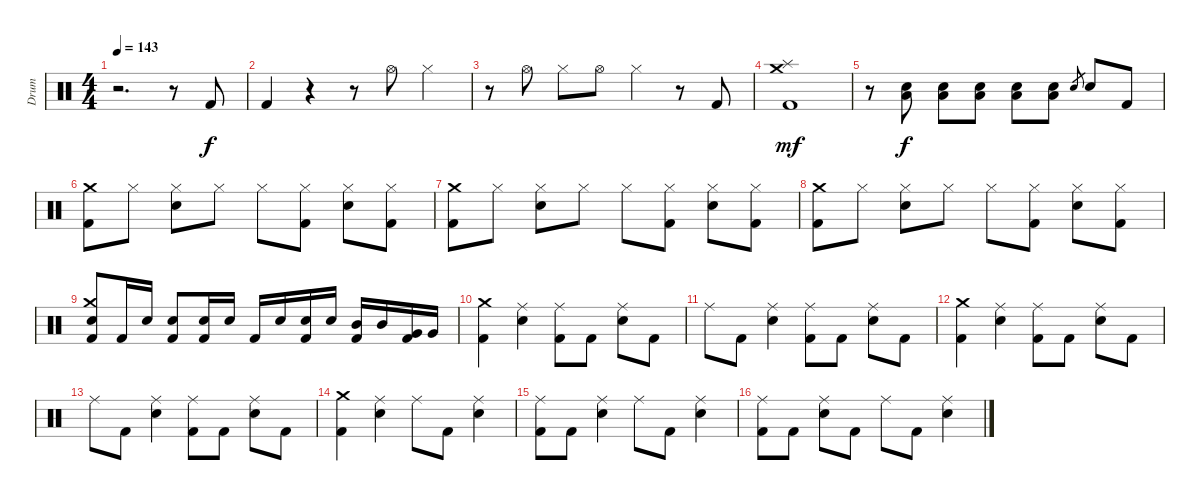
\track ("Drum" "Drum") {instrument percussion}
\staff {score}
\articulation defaults
\ts (4 4)
\tempo 143
\clef neutral
\ks c
r.2{d dy f} r.8 "Kick (hit) 2".8 |
"Kick (hit) 2".4 r.4 r.8 "Hi-Hat (open)".8 "Hi-Hat (closed)".4 |
r.8 "Hi-Hat (open)".8 "Hi-Hat (closed)".8 "Hi-Hat (open)".8 "Hi-Hat (closed)".4 r.8 "Kick (hit) 2".8 |
("Splash (hit)" "Crash medium (hit)" "Kick (hit) 2").1{dy mf} |
r.8 ("Snare (hit) 2" "Low Floor Tom (hit)").8{dy f} ("Snare (hit) 2" "Low Floor Tom (hit)").8 ("Snare (hit) 2" "Low Floor Tom (hit)").8 ("Snare (hit) 2" "Low Floor Tom (hit)").8 ("Snare (hit) 2" "Low Floor Tom (hit)").8 "Snare (hit) 2".8{gr} "Snare (hit) 2".8 "Kick (hit) 2".8 |
("Crash medium (hit)" "Kick (hit) 2").8 "Hi-Hat (closed)".8 ("Hi-Hat (closed)" "Snare (hit) 2").8 "Hi-Hat (closed)".8 "Hi-Hat (closed)".8 ("Hi-Hat (closed)" "Kick (hit) 2").8 ("Hi-Hat (closed)" "Snare (hit) 2").8 ("Hi-Hat (closed)" "Kick (hit) 2").8 |
("Crash medium (hit)" "Kick (hit) 2").8 "Hi-Hat (closed)".8 ("Hi-Hat (closed)" "Snare (hit) 2").8 "Hi-Hat (closed)".8 "Hi-Hat (closed)".8 ("Hi-Hat (closed)" "Kick (hit) 2").8 ("Hi-Hat (closed)" "Snare (hit) 2").8 ("Hi-Hat (closed)" "Kick (hit) 2").8 |
("Crash medium (hit)" "Kick (hit) 2").8 "Hi-Hat (closed)".8 ("Hi-Hat (closed)" "Snare (hit) 2").8 "Hi-Hat (closed)".8 "Hi-Hat (closed)".8 ("Hi-Hat (closed)" "Kick (hit) 2").8 ("Hi-Hat (closed)" "Snare (hit) 2").8 ("Hi-Hat (closed)" "Kick (hit) 2").8 |
("Crash medium (hit)" "Snare (hit) 2" "Kick (hit) 2").8 "Kick (hit) 2".16 "Snare (hit) 2".16 ("Snare (hit) 2" "Kick (hit) 2").8 ("Snare (hit) 2" "Kick (hit) 2").16 "Snare (hit) 2".16 "Kick (hit) 2".16 "Snare (hit) 2".16 ("Snare (hit) 2" "Kick (hit) 2").16 "Snare (hit) 2".16 ("Mid Tom (hit)" "Kick (hit) 2").16 "Mid Tom (hit)".16 ("Very Low Tom (hit)" "Kick (hit) 2").16 "Very Low Tom (hit)".16 |
("Crash medium (hit)" "Kick (hit) 2").4 ("Ride (middle)" "Snare (hit) 2").4 ("Ride (middle)" "Kick (hit) 2").8 "Kick (hit) 2".8 ("Ride (middle)" "Snare (hit) 2").8 "Kick (hit) 2".8 |
"Ride (middle)".8 "Kick (hit) 2".8 ("Ride (middle)" "Snare (hit) 2").4 ("Ride (middle)" "Kick (hit) 2").8 "Kick (hit) 2".8 ("Ride (middle)" "Snare (hit) 2").8 "Kick (hit) 2".8 |
("Crash medium (hit)" "Kick (hit) 2").4 ("Ride (middle)" "Snare (hit) 2").4 ("Ride (middle)" "Kick (hit) 2").8 "Kick (hit) 2".8 ("Ride (middle)" "Snare (hit) 2").8 "Kick (hit) 2".8 |
"Ride (middle)".8 "Kick (hit) 2".8 ("Ride (middle)" "Snare (hit) 2").4 ("Ride (middle)" "Kick (hit) 2").8 "Kick (hit) 2".8 ("Ride (middle)" "Snare (hit) 2").8 "Kick (hit) 2".8 |
("Crash medium (hit)" "Kick (hit) 2").4 ("Ride (middle)" "Snare (hit) 2").4 "Ride (middle)".8 "Kick (hit) 2".8 ("Ride (middle)" "Snare (hit) 2").4 |
("Ride (middle)" "Kick (hit) 2").8 "Kick (hit) 2".8 ("Ride (middle)" "Snare (hit) 2").4 "Ride (middle)".8 "Kick (hit) 2".8 ("Ride (middle)" "Snare (hit) 2").4 |
("Ride (middle)" "Kick (hit) 2").8 "Kick (hit) 2".8 ("Ride (middle)" "Snare (hit) 2").8 "Kick (hit) 2".8 "Ride (middle)".8 "Kick (hit) 2".8 ("Ride (middle)" "Snare (hit) 2").4
